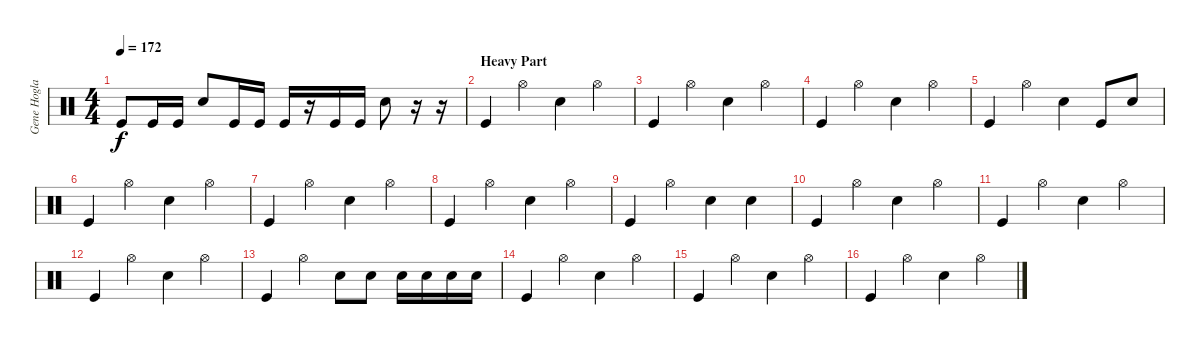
\track ("Gene Hoglan" "Gene Hogla") {instrument percussion}
\staff {score}
\articulation defaults
\ts (4 4)
\tempo 172
\clef neutral
\ks c "Kick (hit)".8{dy f} "Kick (hit)".16 "Kick (hit)".16 "Snare (hit) 2".8 "Kick (hit)".16 "Kick (hit)".16 "Kick (hit)".16
r.16 "Kick (hit)".16 "Kick (hit)".16 "Snare (hit) 2".8 r.16 r.16 |
\section ("" "Heavy Part")
"Kick (hit)".4 "Hi-Hat (open)".4 "Snare (hit) 2".4 "Hi-Hat (open)".4 |
"Kick (hit)".4 "Hi-Hat (open)".4 "Snare (hit) 2".4 "Hi-Hat (open)".4 |
"Kick (hit)".4 "Hi-Hat (open)".4 "Snare (hit) 2".4 "Hi-Hat (open)".4 |
"Kick (hit)".4 "Hi-Hat (open)".4 "Snare (hit) 2".4 "Kick (hit)".8 "Snare (hit) 2".8 |
"Kick (hit)".4 "Hi-Hat (open)".4 "Snare (hit) 2".4 "Hi-Hat (open)".4 |
"Kick (hit)".4 "Hi-Hat (open)".4 "Snare (hit) 2".4 "Hi-Hat (open)".4 |
"Kick (hit)".4 "Hi-Hat (open)".4 "Snare (hit) 2".4 "Hi-Hat (open)".4 |
"Kick (hit)".4 "Hi-Hat (open)".4 "Snare (hit) 2".4 "Snare (hit) 2".4 |
"Kick (hit)".4 "Hi-Hat (open)".4 "Snare (hit) 2".4 "Hi-Hat (open)".4 |
"Kick (hit)".4 "Hi-Hat (open)".4 "Snare (hit) 2".4 "Hi-Hat (open)".4 |
"Kick (hit)".4 "Hi-Hat (open)".4 "Snare (hit) 2".4 "Hi-Hat (open)".4 |
"Kick (hit)".4 "Hi-Hat (open)".4 "Snare (hit) 2".8 "Snare (hit) 2".8 "Snare (hit) 2".16 "Snare (hit) 2".16 "Snare (hit) 2".16 "Snare (hit) 2".16 |
"Kick (hit)".4 "Hi-Hat (open)".4 "Snare (hit) 2".4 "Hi-Hat (open)".4 |
"Kick (hit)".4 "Hi-Hat (open)".4 "Snare (hit) 2".4 "Hi-Hat (open)".4 |
"Kick (hit)".4 "Hi-Hat (open)".4 "Snare (hit) 2".4 "Hi-Hat (open)".4
